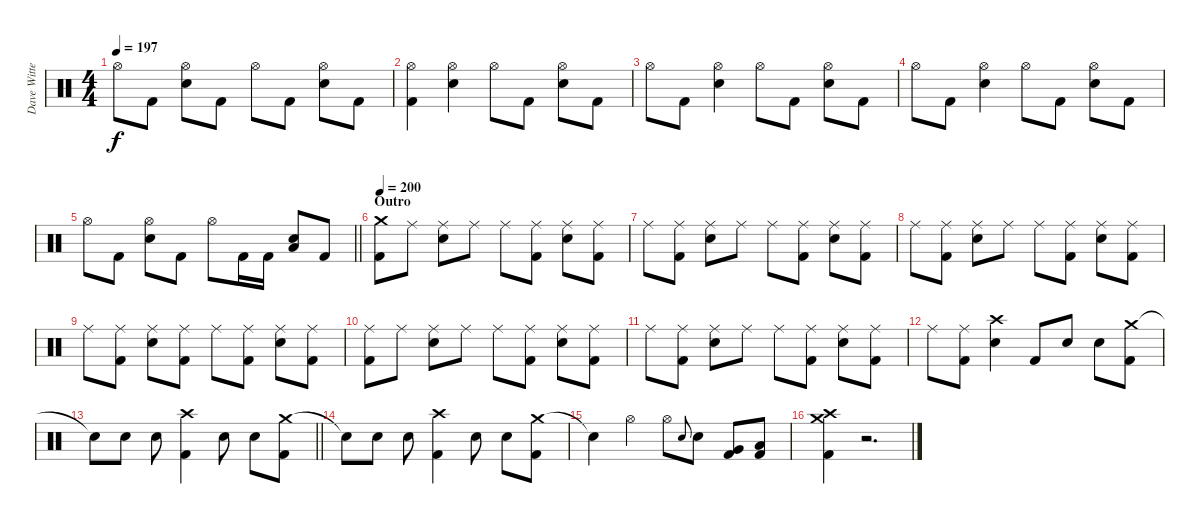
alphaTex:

\track ("Dave Witte" "Dave Witte") {instrument percussion}
\staff {score}
\articulation defaults
\ts (4 4)
\tempo 197
\clef neutral
\ks c "Hi-Hat (open)".8{dy f} "Kick (hit) 2".8
("Hi-Hat (open)" "Electric Snare (hit)").8 "Kick (hit) 2".8 "Hi-Hat (open)".8 "Kick (hit) 2".8 ("Hi-Hat (open)" "Electric Snare (hit)").8 "Kick (hit) 2".8 |
("Hi-Hat (open)" "Kick (hit) 2").4 ("Hi-Hat (open)" "Electric Snare (hit)").4 "Hi-Hat (open)".8 "Kick (hit) 2".8 ("Hi-Hat (open)" "Electric Snare (hit)").8 "Kick (hit) 2".8 |
"Hi-Hat (open)".8 "Kick (hit) 2".8 ("Hi-Hat (open)" "Electric Snare (hit)").4 "Hi-Hat (open)".8 "Kick (hit) 2".8 ("Hi-Hat (open)" "Electric Snare (hit)").8 "Kick (hit) 2".8 |
"Hi-Hat (open)".8 "Kick (hit) 2".8 ("Hi-Hat (open)" "Electric Snare (hit)").4 "Hi-Hat (open)".8 "Kick (hit) 2".8 ("Hi-Hat (open)" "Electric Snare (hit)").8 "Kick (hit) 2".8 |
\barLineRight lightlight "Hi-Hat (open)".8 "Kick (hit) 2".8
("Hi-Hat (open)" "Electric Snare (hit)").8 "Kick (hit) 2".8 "Hi-Hat (open)".8 "Kick (hit) 2".16 "Kick (hit) 2".16 ("Electric Snare (hit)" "Low Tom (hit)").8 "Kick (hit) 2".8 |
\section ("" "Outro")
\tempo 200
("Crash medium (hit)" "Kick (hit) 2").8 "Ride (middle)".8 ("Ride (middle)" "Electric Snare (hit)").8 "Ride (middle)".8 "Ride (middle)".8 ("Ride (middle)" "Kick (hit) 2").8 ("Ride (middle)" "Electric Snare (hit)").8 ("Ride (middle)" "Kick (hit) 2").8 |
"Ride (middle)".8 ("Ride (middle)" "Kick (hit) 2").8 ("Ride (middle)" "Electric Snare (hit)").8 "Ride (middle)".8 "Ride (middle)".8 ("Ride (middle)" "Kick (hit) 2").8 ("Ride (middle)" "Electric Snare (hit)").8 ("Ride (middle)" "Kick (hit) 2").8 |
"Ride (middle)".8 ("Ride (middle)" "Kick (hit) 2").8 ("Ride (middle)" "Electric Snare (hit)").8 "Ride (middle)".8 "Ride (middle)".8 ("Ride (middle)" "Kick (hit) 2").8 ("Ride (middle)" "Electric Snare (hit)").8 ("Ride (middle)" "Kick (hit) 2").8 |
"Ride (middle)".8 ("Ride (middle)" "Kick (hit) 2").8 ("Ride (middle)" "Electric Snare (hit)").8 ("Ride (middle)" "Kick (hit) 2").8 "Ride (middle)".8 ("Ride (middle)" "Kick (hit) 2").8 ("Ride (middle)" "Electric Snare (hit)").8 ("Ride (middle)" "Kick (hit) 2").8 |
("Ride (middle)" "Kick (hit) 2").8 "Ride (middle)".8 ("Ride (middle)" "Electric Snare (hit)").8 "Ride (middle)".8 "Ride (middle)".8 ("Ride (middle)" "Kick (hit) 2").8 ("Ride (middle)" "Electric Snare (hit)").8 ("Ride (middle)" "Kick (hit) 2").8 |
"Ride (middle)".8 ("Ride (middle)" "Kick (hit) 2").8 ("Ride (middle)" "Electric Snare (hit)").8 "Ride (middle)".8 "Ride (middle)".8 ("Ride (middle)" "Kick (hit) 2").8 ("Ride (middle)" "Electric Snare (hit)").8 ("Ride (middle)" "Kick (hit) 2").8 |
"Ride (middle)".8 ("Ride (middle)" "Kick (hit) 2").8 ("Crash high (hit)" "Electric Snare (hit)").4 "Kick (hit) 2".8 "Electric Snare (hit)".8 "Electric Snare (hit)".8 ("Crash medium (hit)" "Kick (hit) 2").8 |
\barLineRight lightlight "Snare (hit)"{t}.8 "Electric Snare (hit)".8 "Electric Snare (hit)".8
("Crash high (hit)" "Kick (hit) 2").4 "Electric Snare (hit)".8 "Electric Snare (hit)".8 ("Crash medium (hit)" "Kick (hit) 2").8 |
"Snare (hit)"{t}.8 "Electric Snare (hit)".8 "Electric Snare (hit)".8 ("Crash high (hit)" "Kick (hit) 2").4 "Electric Snare (hit)".8 "Electric Snare (hit)".8 ("Crash medium (hit)" "Kick (hit) 2").8 |
"Snare (hit)"{t}.4 "Hi-Hat (open)".4 "Hi-Hat (open)".8 "Electric Snare (hit)".8{gr onbeat} "Electric Snare (hit)".8 ("Very Low Tom (hit)" "Kick (hit) 2").8 ("Low Floor Tom (hit)" "Kick (hit) 2").8 |
("Crash medium (hit)" "Crash high (hit)" "Kick (hit) 2").4 r.2{d}
